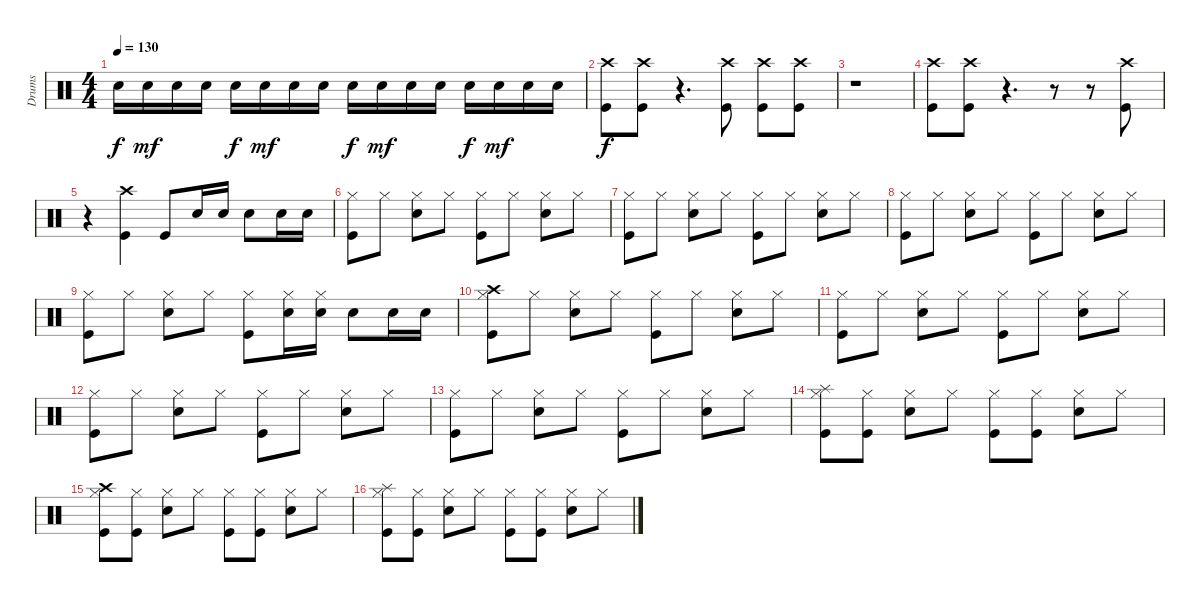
\track ("Drums" "Drums") {instrument percussion}
\staff {score}
\articulation defaults
\ts (4 4)
\tempo 130
\clef neutral
\ks c "Snare (hit) 2".16{dy f} "Snare (hit) 2".16{dy mf} "Snare (hit) 2".16 "Snare (hit) 2".16 "Snare (hit) 2".16{dy f} "Snare (hit) 2".16{dy mf} "Snare (hit) 2".16 "Snare (hit) 2".16 "Snare (hit) 2".16{dy f} "Snare (hit) 2".16{dy mf} "Snare (hit) 2".16 "Snare (hit) 2".16 "Snare (hit) 2".16{dy f} "Snare (hit) 2".16{dy mf} "Snare (hit) 2".16 "Snare (hit) 2".16
|
("Kick (hit)" "Crash high (hit)").8{dy f} ("Kick (hit)" "Crash high (hit)").8 r.4{d} ("Kick (hit)" "Crash high (hit)").8 ("Kick (hit)" "Crash high (hit)").8 ("Kick (hit)" "Crash high (hit)").8 |
r.1 |
("Kick (hit)" "Crash high (hit)").8 ("Kick (hit)" "Crash high (hit)").8 r.4{d} r.8 r.8 ("Kick (hit)" "Crash high (hit)").8 |
r.4 ("Kick (hit)" "Crash high (hit)").4 "Kick (hit)".8 "Snare (hit) 2".16 "Snare (hit) 2".16 "Snare (hit) 2".8 "Snare (hit) 2".16 "Snare (hit) 2".16 |
("Hi-Hat (closed)" "Kick (hit)").8 "Hi-Hat (closed)".8 ("Hi-Hat (closed)" "Snare (hit) 2").8 "Hi-Hat (closed)".8 ("Hi-Hat (closed)" "Kick (hit)").8 "Hi-Hat (closed)".8 ("Hi-Hat (closed)" "Snare (hit) 2").8 "Hi-Hat (closed)".8 |
("Hi-Hat (closed)" "Kick (hit)").8 "Hi-Hat (closed)".8 ("Hi-Hat (closed)" "Snare (hit) 2").8 "Hi-Hat (closed)".8 ("Hi-Hat (closed)" "Kick (hit)").8 "Hi-Hat (closed)".8 ("Hi-Hat (closed)" "Snare (hit) 2").8 "Hi-Hat (closed)".8 |
("Hi-Hat (closed)" "Kick (hit)").8 "Hi-Hat (closed)".8 ("Hi-Hat (closed)" "Snare (hit) 2").8 "Hi-Hat (closed)".8 ("Hi-Hat (closed)" "Kick (hit)").8 "Hi-Hat (closed)".8 ("Hi-Hat (closed)" "Snare (hit) 2").8 "Hi-Hat (closed)".8 |
("Hi-Hat (closed)" "Kick (hit)").8 "Hi-Hat (closed)".8 ("Hi-Hat (closed)" "Snare (hit) 2").8 "Hi-Hat (closed)".8 ("Hi-Hat (closed)" "Kick (hit)").8 ("Hi-Hat (closed)" "Snare (hit) 2").16 ("Hi-Hat (closed)" "Snare (hit) 2").16 "Snare (hit) 2".8 "Snare (hit) 2".16 "Snare (hit) 2".16 |
("Hi-Hat (closed)" "Kick (hit)" "Crash high (hit)").8 "Hi-Hat (closed)".8 ("Hi-Hat (closed)" "Snare (hit) 2").8 "Hi-Hat (closed)".8 ("Hi-Hat (closed)" "Kick (hit)").8 "Hi-Hat (closed)".8 ("Hi-Hat (closed)" "Snare (hit) 2").8 "Hi-Hat (closed)".8 |
("Hi-Hat (closed)" "Kick (hit)").8 "Hi-Hat (closed)".8 ("Hi-Hat (closed)" "Snare (hit) 2").8 "Hi-Hat (closed)".8 ("Hi-Hat (closed)" "Kick (hit)").8 "Hi-Hat (closed)".8 ("Hi-Hat (closed)" "Snare (hit) 2").8 "Hi-Hat (closed)".8 |
("Hi-Hat (closed)" "Kick (hit)").8 "Hi-Hat (closed)".8 ("Hi-Hat (closed)" "Snare (hit) 2").8 "Hi-Hat (closed)".8 ("Hi-Hat (closed)" "Kick (hit)").8 "Hi-Hat (closed)".8 ("Hi-Hat (closed)" "Snare (hit) 2").8 "Hi-Hat (closed)".8 |
("Hi-Hat (closed)" "Kick (hit)").8 "Hi-Hat (closed)".8 ("Hi-Hat (closed)" "Snare (hit) 2").8 "Hi-Hat (closed)".8 ("Hi-Hat (closed)" "Kick (hit)").8 "Hi-Hat (closed)".8 ("Hi-Hat (closed)" "Snare (hit) 2").8 "Hi-Hat (closed)".8 |
("Hi-Hat (closed)" "Kick (hit)" "Splash (hit)").8 ("Hi-Hat (closed)" "Kick (hit)").8 ("Hi-Hat (closed)" "Snare (hit) 2").8 "Hi-Hat (closed)".8 ("Hi-Hat (closed)" "Kick (hit)").8 ("Hi-Hat (closed)" "Kick (hit)").8 ("Hi-Hat (closed)" "Snare (hit) 2").8 "Hi-Hat (closed)".8 |
("Hi-Hat (closed)" "Kick (hit)" "Crash high (hit)").8 ("Hi-Hat (closed)" "Kick (hit)").8 ("Hi-Hat (closed)" "Snare (hit) 2").8 "Hi-Hat (closed)".8 ("Hi-Hat (closed)" "Kick (hit)").8 ("Hi-Hat (closed)" "Kick (hit)").8 ("Hi-Hat (closed)" "Snare (hit) 2").8 "Hi-Hat (closed)".8 |
("Hi-Hat (closed)" "Kick (hit)" "Splash (hit)").8 ("Hi-Hat (closed)" "Kick (hit)").8 ("Hi-Hat (closed)" "Snare (hit) 2").8 "Hi-Hat (closed)".8 ("Hi-Hat (closed)" "Kick (hit)").8 ("Hi-Hat (closed)" "Kick (hit)").8 ("Hi-Hat (closed)" "Snare (hit) 2").8 "Hi-Hat (closed)".8
